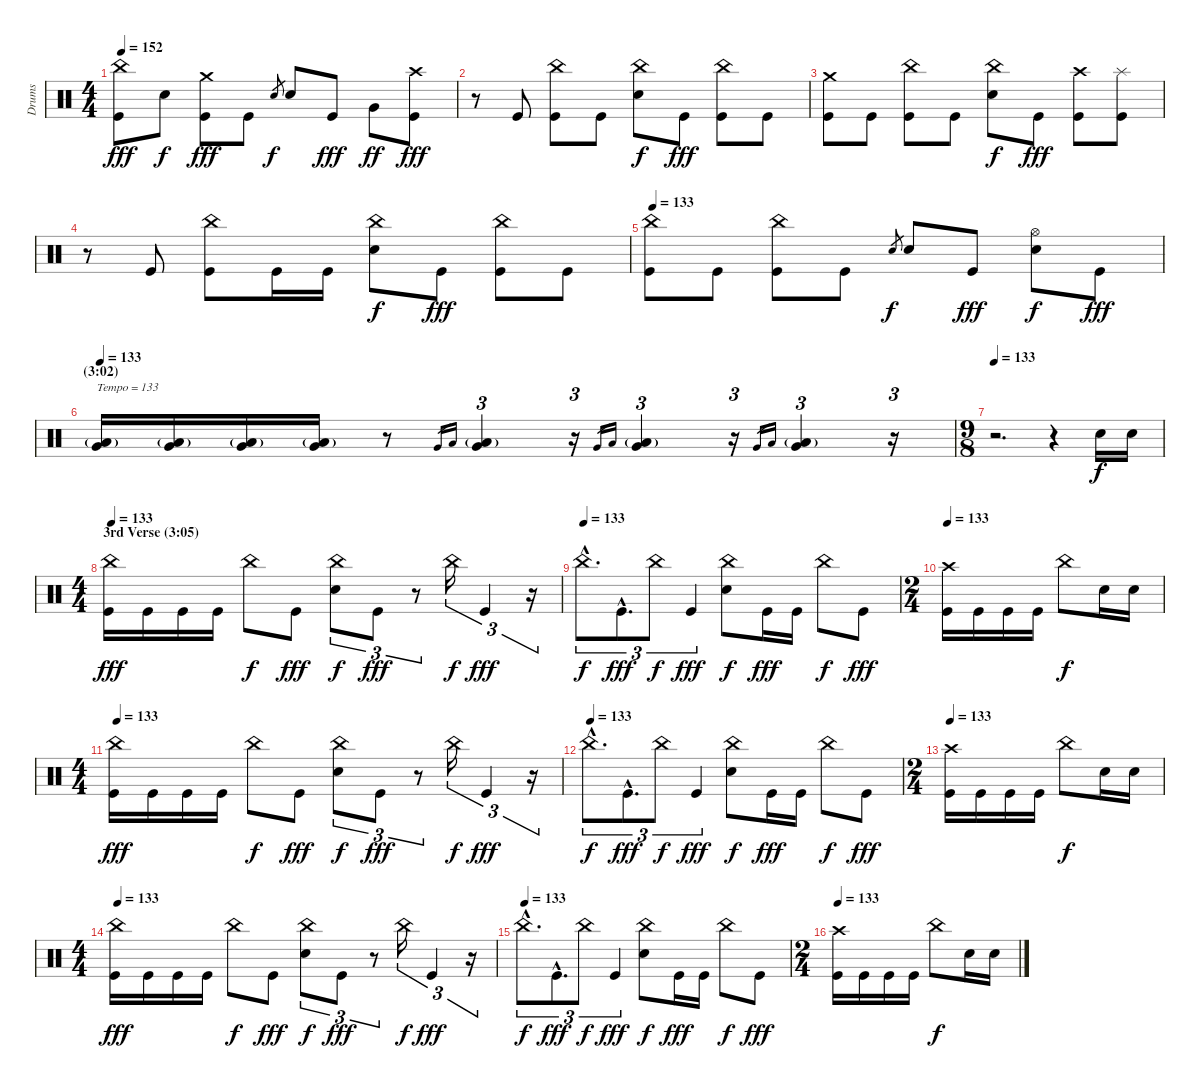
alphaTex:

\track ("Drums" "Drums") {instrument percussion}
\staff {score}
\articulation defaults
\ts (4 4)
\tempo 152
\clef neutral
\ks c
("China (hit)" "Kick (hit)").8{dy fff} "Snare (hit) 2".8{dy f} ("Crash medium (hit)" "Kick (hit)").8{dy fff} "Kick (hit)".8 "Snare (hit) 2".8{gr dy f} "Snare (hit) 2".8 "Kick (hit)".8{dy fff} "Very Low Tom (hit)".8{dy ff} ("Crash high (hit)" "Kick (hit)").8{dy fff} |
r.8 "Kick (hit)".8 ("China (hit)" "Kick (hit)").8 "Kick (hit)".8 ("China (hit)" "Snare (hit) 2").8{dy f} "Kick (hit)".8{dy fff} ("China (hit)" "Kick (hit)").8 "Kick (hit)".8 |
("Crash medium (hit)" "Kick (hit)").8 "Kick (hit)".8 ("China (hit)" "Kick (hit)").8 "Kick (hit)".8 ("China (hit)" "Snare (hit) 2").8{dy f} "Kick (hit)".8{dy fff} ("Crash high (hit)" "Kick (hit)").8 ("Splash (hit)" "Kick (hit)").8 |
r.8 "Kick (hit)".8 ("China (hit)" "Kick (hit)").8 "Kick (hit)".16 "Kick (hit)".16 ("China (hit)" "Snare (hit) 2").8{dy f} "Kick (hit)".8{dy fff} ("China (hit)" "Kick (hit)").8 "Kick (hit)".8 |
\tempo 133
("China (hit)" "Kick (hit)").8 "Kick (hit)".8 ("China (hit)" "Kick (hit)").8 "Kick (hit)".8 "Snare (hit) 2".8{gr dy f} "Snare (hit) 2".8 "Kick (hit)".8{dy fff} ("Hi-Hat (open)" "Snare (hit) 2").8{dy f} "Kick (hit)".8{dy fff} |
\section ("" "(3:02)")
\tempo 133
("Very Low Tom (hit)" "Low Floor Tom (hit)"{g}).16{txt "Tempo = 133"} ("Very Low Tom (hit)" "Low Floor Tom (hit)"{g}).16 ("Very Low Tom (hit)" "Low Floor Tom (hit)"{g}).16 ("Very Low Tom (hit)" "Low Floor Tom (hit)"{g}).16 r.8 "Very Low Tom (hit)".16{gr} "Low Floor Tom (hit)".16{gr} ("Very Low Tom (hit)" "Low Floor Tom (hit)"{g}).4{tu (3 2)} r.16{tu (3 2)} "Very Low Tom (hit)".16{gr} "Low Floor Tom (hit)".16{gr} ("Very Low Tom (hit)" "Low Floor Tom (hit)"{g}).4{tu (3 2)} r.16{tu (3 2)} "Very Low Tom (hit)".16{gr} "Low Floor Tom (hit)".16{gr} ("Very Low Tom (hit)" "Low Floor Tom (hit)"{g}).4{tu (3 2)} r.16{tu (3 2)} |
\ts (9 8)
\tempo 133
r.2{d} r.4 "Snare (hit) 2".16{dy f} "Snare (hit) 2".16 |
\ts (4 4)
\section ("" "3rd Verse (3:05)")
\tempo 133
("China (hit)" "Kick (hit)").16{dy fff} "Kick (hit)".16 "Kick (hit)".16 "Kick (hit)".16 "China (hit)".8{dy f} "Kick (hit)".8{dy fff} ("China (hit)" "Snare (hit) 2").8{tu (3 2) dy f} "Kick (hit)".8{tu (3 2) dy fff} r.8{tu (3 2)} "China (hit)".16{tu (3 2) dy f} "Kick (hit)".4{tu (3 2) dy fff} r.16{tu (3 2)} |
\tempo (133)
"China (hit)"{hac}.8{d tu (3 2) dy f} "Kick (hit)"{hac}.8{d tu (3 2) dy fff} "China (hit)".8{tu (3 2) dy f} "Kick (hit)".4{tu (3 2) dy fff} ("China (hit)" "Snare (hit) 2").8{dy f} "Kick (hit)".16{dy fff} "Kick (hit)".16 "China (hit)".8{dy f} "Kick (hit)".8{dy fff} |
\ts (2 4)
\tempo 133
("Crash high (hit)" "Kick (hit)").16 "Kick (hit)".16 "Kick (hit)".16 "Kick (hit)".16 "China (hit)".8{dy f} "Snare (hit) 2".16 "Snare (hit) 2".16 |
\ts (4 4)
\tempo 133
("China (hit)" "Kick (hit)").16{dy fff} "Kick (hit)".16 "Kick (hit)".16 "Kick (hit)".16 "China (hit)".8{dy f} "Kick (hit)".8{dy fff} ("China (hit)" "Snare (hit) 2").8{tu (3 2) dy f} "Kick (hit)".8{tu (3 2) dy fff} r.8{tu (3 2)} "China (hit)".16{tu (3 2) dy f} "Kick (hit)".4{tu (3 2) dy fff} r.16{tu (3 2)} |
\tempo (133)
"China (hit)"{hac}.8{d tu (3 2) dy f} "Kick (hit)"{hac}.8{d tu (3 2) dy fff} "China (hit)".8{tu (3 2) dy f} "Kick (hit)".4{tu (3 2) dy fff} ("China (hit)" "Snare (hit) 2").8{dy f} "Kick (hit)".16{dy fff} "Kick (hit)".16 "China (hit)".8{dy f} "Kick (hit)".8{dy fff} |
\ts (2 4)
\tempo 133
("Crash high (hit)" "Kick (hit)").16 "Kick (hit)".16 "Kick (hit)".16 "Kick (hit)".16 "China (hit)".8{dy f} "Snare (hit) 2".16 "Snare (hit) 2".16 |
\ts (4 4)
\tempo 133
("China (hit)" "Kick (hit)").16{dy fff} "Kick (hit)".16 "Kick (hit)".16 "Kick (hit)".16 "China (hit)".8{dy f} "Kick (hit)".8{dy fff} ("China (hit)" "Snare (hit) 2").8{tu (3 2) dy f} "Kick (hit)".8{tu (3 2) dy fff} r.8{tu (3 2)} "China (hit)".16{tu (3 2) dy f} "Kick (hit)".4{tu (3 2) dy fff} r.16{tu (3 2)} |
\tempo (133)
"China (hit)"{hac}.8{d tu (3 2) dy f} "Kick (hit)"{hac}.8{d tu (3 2) dy fff} "China (hit)".8{tu (3 2) dy f} "Kick (hit)".4{tu (3 2) dy fff} ("China (hit)" "Snare (hit) 2").8{dy f} "Kick (hit)".16{dy fff} "Kick (hit)".16 "China (hit)".8{dy f} "Kick (hit)".8{dy fff} |
\ts (2 4)
\tempo 133
("Crash high (hit)" "Kick (hit)").16 "Kick (hit)".16 "Kick (hit)".16 "Kick (hit)".16 "China (hit)".8{dy f} "Snare (hit) 2".16 "Snare (hit) 2".16
